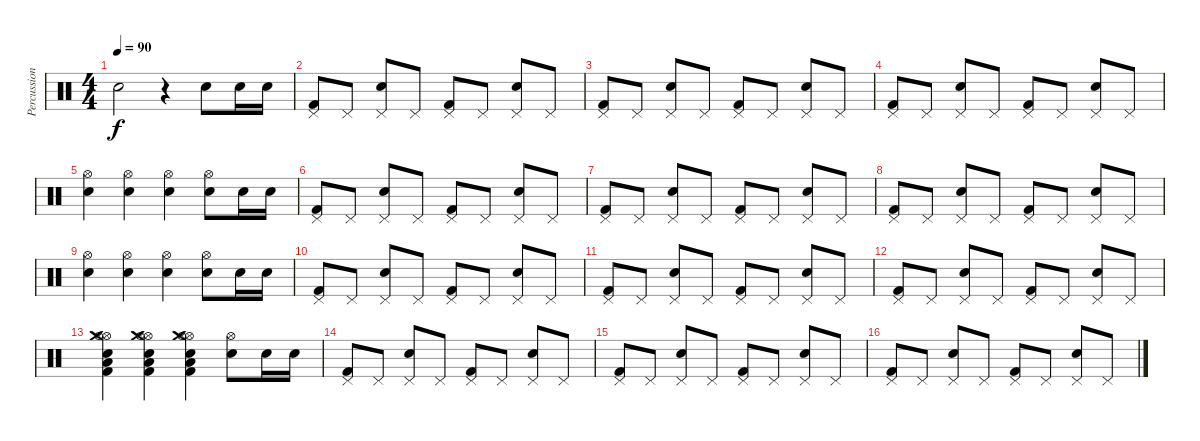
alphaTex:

\track ("Percussion" "Percussion") {instrument percussion}
\staff {score}
\articulation defaults
\ts (4 4)
\tempo 90
\clef neutral
\ks c "Electric Snare (hit)".2{dy f}
r.4 "Electric Snare (hit)".8 "Electric Snare (hit)".16 "Electric Snare (hit)".16 |
("Pedal Hi-Hat (hit)" "Kick (hit) 2").8 "Pedal Hi-Hat (hit)".8 ("Pedal Hi-Hat (hit)" "Electric Snare (hit)").8 "Pedal Hi-Hat (hit)".8 ("Pedal Hi-Hat (hit)" "Kick (hit) 2").8 "Pedal Hi-Hat (hit)".8 ("Pedal Hi-Hat (hit)" "Electric Snare (hit)").8 "Pedal Hi-Hat (hit)".8 |
("Pedal Hi-Hat (hit)" "Kick (hit) 2").8 "Pedal Hi-Hat (hit)".8 ("Pedal Hi-Hat (hit)" "Electric Snare (hit)").8 "Pedal Hi-Hat (hit)".8 ("Pedal Hi-Hat (hit)" "Kick (hit) 2").8 "Pedal Hi-Hat (hit)".8 ("Pedal Hi-Hat (hit)" "Electric Snare (hit)").8 "Pedal Hi-Hat (hit)".8 |
("Pedal Hi-Hat (hit)" "Kick (hit) 2").8 "Pedal Hi-Hat (hit)".8 ("Pedal Hi-Hat (hit)" "Electric Snare (hit)").8 "Pedal Hi-Hat (hit)".8 ("Pedal Hi-Hat (hit)" "Kick (hit) 2").8 "Pedal Hi-Hat (hit)".8 ("Pedal Hi-Hat (hit)" "Electric Snare (hit)").8 "Pedal Hi-Hat (hit)".8 |
("Hi-Hat (open)" "Electric Snare (hit)").4 ("Hi-Hat (open)" "Electric Snare (hit)").4 ("Hi-Hat (open)" "Electric Snare (hit)").4 ("Hi-Hat (open)" "Electric Snare (hit)").8 "Electric Snare (hit)".16 "Electric Snare (hit)".16 |
("Pedal Hi-Hat (hit)" "Kick (hit) 2").8 "Pedal Hi-Hat (hit)".8 ("Pedal Hi-Hat (hit)" "Electric Snare (hit)").8 "Pedal Hi-Hat (hit)".8 ("Pedal Hi-Hat (hit)" "Kick (hit) 2").8 "Pedal Hi-Hat (hit)".8 ("Pedal Hi-Hat (hit)" "Electric Snare (hit)").8 "Pedal Hi-Hat (hit)".8 |
("Pedal Hi-Hat (hit)" "Kick (hit) 2").8 "Pedal Hi-Hat (hit)".8 ("Pedal Hi-Hat (hit)" "Electric Snare (hit)").8 "Pedal Hi-Hat (hit)".8 ("Pedal Hi-Hat (hit)" "Kick (hit) 2").8 "Pedal Hi-Hat (hit)".8 ("Pedal Hi-Hat (hit)" "Electric Snare (hit)").8 "Pedal Hi-Hat (hit)".8 |
("Pedal Hi-Hat (hit)" "Kick (hit) 2").8 "Pedal Hi-Hat (hit)".8 ("Pedal Hi-Hat (hit)" "Electric Snare (hit)").8 "Pedal Hi-Hat (hit)".8 ("Pedal Hi-Hat (hit)" "Kick (hit) 2").8 "Pedal Hi-Hat (hit)".8 ("Pedal Hi-Hat (hit)" "Electric Snare (hit)").8 "Pedal Hi-Hat (hit)".8 |
("Hi-Hat (open)" "Electric Snare (hit)").4 ("Hi-Hat (open)" "Electric Snare (hit)").4 ("Hi-Hat (open)" "Electric Snare (hit)").4 ("Hi-Hat (open)" "Electric Snare (hit)").8 "Electric Snare (hit)".16 "Electric Snare (hit)".16 |
("Pedal Hi-Hat (hit)" "Kick (hit) 2").8 "Pedal Hi-Hat (hit)".8 ("Pedal Hi-Hat (hit)" "Electric Snare (hit)").8 "Pedal Hi-Hat (hit)".8 ("Pedal Hi-Hat (hit)" "Kick (hit) 2").8 "Pedal Hi-Hat (hit)".8 ("Pedal Hi-Hat (hit)" "Electric Snare (hit)").8 "Pedal Hi-Hat (hit)".8 |
("Pedal Hi-Hat (hit)" "Kick (hit) 2").8 "Pedal Hi-Hat (hit)".8 ("Pedal Hi-Hat (hit)" "Electric Snare (hit)").8 "Pedal Hi-Hat (hit)".8 ("Pedal Hi-Hat (hit)" "Kick (hit) 2").8 "Pedal Hi-Hat (hit)".8 ("Pedal Hi-Hat (hit)" "Electric Snare (hit)").8 "Pedal Hi-Hat (hit)".8 |
("Pedal Hi-Hat (hit)" "Kick (hit) 2").8 "Pedal Hi-Hat (hit)".8 ("Pedal Hi-Hat (hit)" "Electric Snare (hit)").8 "Pedal Hi-Hat (hit)".8 ("Pedal Hi-Hat (hit)" "Kick (hit) 2").8 "Pedal Hi-Hat (hit)".8 ("Pedal Hi-Hat (hit)" "Electric Snare (hit)").8 "Pedal Hi-Hat (hit)".8 |
("Hi-Hat (open)" "Hi-Hat (open)" "Crash medium (hit)" "Electric Snare (hit)" "Low Tom (hit)" "Kick (hit) 2").4 ("Hi-Hat (open)" "Hi-Hat (open)" "Crash medium (hit)" "Electric Snare (hit)" "Low Tom (hit)" "Kick (hit) 2").4 ("Hi-Hat (open)" "Hi-Hat (open)" "Crash medium (hit)" "Electric Snare (hit)" "Low Tom (hit)" "Kick (hit) 2").4 ("Hi-Hat (open)" "Electric Snare (hit)").8 "Electric Snare (hit)".16 "Electric Snare (hit)".16 |
("Pedal Hi-Hat (hit)" "Kick (hit) 2").8 "Pedal Hi-Hat (hit)".8 ("Pedal Hi-Hat (hit)" "Electric Snare (hit)").8 "Pedal Hi-Hat (hit)".8 ("Pedal Hi-Hat (hit)" "Kick (hit) 2").8 "Pedal Hi-Hat (hit)".8 ("Pedal Hi-Hat (hit)" "Electric Snare (hit)").8 "Pedal Hi-Hat (hit)".8 |
("Pedal Hi-Hat (hit)" "Kick (hit) 2").8 "Pedal Hi-Hat (hit)".8 ("Pedal Hi-Hat (hit)" "Electric Snare (hit)").8 "Pedal Hi-Hat (hit)".8 ("Pedal Hi-Hat (hit)" "Kick (hit) 2").8 "Pedal Hi-Hat (hit)".8 ("Pedal Hi-Hat (hit)" "Electric Snare (hit)").8 "Pedal Hi-Hat (hit)".8 |
("Pedal Hi-Hat (hit)" "Kick (hit) 2").8 "Pedal Hi-Hat (hit)".8 ("Pedal Hi-Hat (hit)" "Electric Snare (hit)").8 "Pedal Hi-Hat (hit)".8 ("Pedal Hi-Hat (hit)" "Kick (hit) 2").8 "Pedal Hi-Hat (hit)".8 ("Pedal Hi-Hat (hit)" "Electric Snare (hit)").8 "Pedal Hi-Hat (hit)".8
